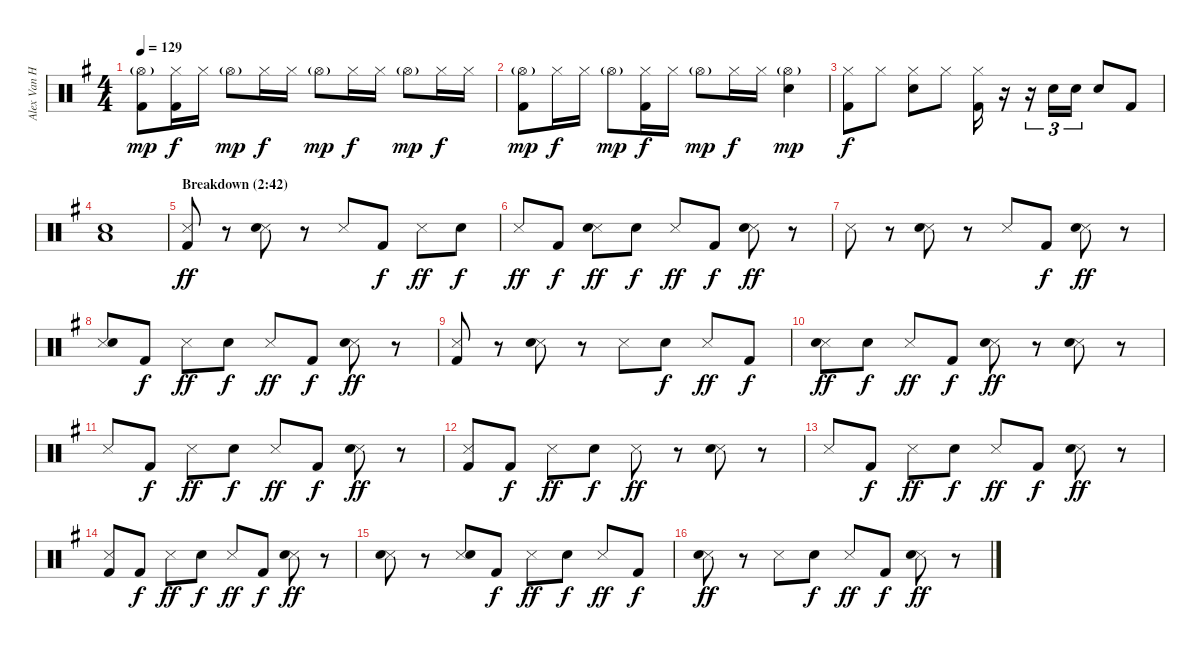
\track ("Alex Van Halen" "Alex Van H") {instrument percussion}
\staff {score}
\articulation defaults
\ts (4 4)
\tempo 129
\clef neutral
\ks eminor
("Hi-Hat (open)"{g} "Kick (hit) 2").8{dy mp} ("Hi-Hat (closed)" "Kick (hit) 2").16{dy f} "Hi-Hat (closed)".16 "Hi-Hat (open)"{g}.8{dy mp} "Hi-Hat (closed)".16{dy f} "Hi-Hat (closed)".16 "Hi-Hat (open)"{g}.8{dy mp} "Hi-Hat (closed)".16{dy f} "Hi-Hat (closed)".16 "Hi-Hat (open)"{g}.8{dy mp} "Hi-Hat (closed)".16{dy f} "Hi-Hat (closed)".16 |
("Hi-Hat (open)"{g} "Kick (hit) 2").8{dy mp} "Hi-Hat (closed)".16{dy f} "Hi-Hat (closed)".16 "Hi-Hat (open)"{g}.8{dy mp} ("Hi-Hat (closed)" "Kick (hit) 2").16{dy f} "Hi-Hat (closed)".16 "Hi-Hat (open)"{g}.8{dy mp} "Hi-Hat (closed)".16{dy f} "Hi-Hat (closed)".16 ("Hi-Hat (open)"{g} "Snare (hit) 2").4{dy mp} |
("Hi-Hat (closed)" "Kick (hit) 2").8{dy f} "Hi-Hat (closed)".8 ("Hi-Hat (closed)" "Snare (hit) 2").8 "Hi-Hat (closed)".8 ("Hi-Hat (closed)" "Kick (hit) 2").16 r.16 r.16{tu (3 2)} "Electric Snare (hit)".16{tu (3 2)} "Electric Snare (hit)".16{tu (3 2)} "Snare (hit) 2".8 "Kick (hit) 2".8 |
("Snare (hit) 2" "Low Floor Tom (hit)").1 |
\section ("" "Breakdown (2:42)")
("Snare (side stick) 3" "Kick (hit) 2").8{dy ff} r.8 ("Snare (side stick) 3" "Snare (hit) 2").8 r.8 "Snare (side stick) 3".8 "Kick (hit) 2".8{dy f} "Snare (side stick) 3".8{dy ff} "Snare (hit) 2".8{dy f} |
"Snare (side stick) 3".8{dy ff} "Kick (hit) 2".8{dy f} ("Snare (side stick) 3" "Snare (hit) 2").8{dy ff} "Snare (hit) 2".8{dy f} "Snare (side stick) 3".8{dy ff} "Kick (hit) 2".8{dy f} ("Snare (side stick) 3" "Snare (hit) 2").8{dy ff} r.8 |
"Snare (side stick) 3".8 r.8 ("Snare (side stick) 3" "Snare (hit) 2").8 r.8 "Snare (side stick) 3".8 "Kick (hit) 2".8{dy f} ("Snare (side stick) 3" "Snare (hit) 2").8{dy ff} r.8 |
("Snare (side stick) 3" "Snare (hit) 2").8 "Kick (hit) 2".8{dy f} "Snare (side stick) 3".8{dy ff} "Snare (hit) 2".8{dy f} "Snare (side stick) 3".8{dy ff} "Kick (hit) 2".8{dy f} ("Snare (side stick) 3" "Snare (hit) 2").8{dy ff} r.8 |
("Snare (side stick) 3" "Kick (hit) 2").8 r.8 ("Snare (side stick) 3" "Snare (hit) 2").8 r.8 "Snare (side stick) 3".8 "Snare (hit) 2".8{dy f} "Snare (side stick) 3".8{dy ff} "Kick (hit) 2".8{dy f} |
("Snare (side stick) 3" "Snare (hit) 2").8{dy ff} "Snare (hit) 2".8{dy f} "Snare (side stick) 3".8{dy ff} "Kick (hit) 2".8{dy f} ("Snare (side stick) 3" "Snare (hit) 2").8{dy ff} r.8 ("Snare (side stick) 3" "Snare (hit) 2").8 r.8 |
"Snare (side stick) 3".8 "Kick (hit) 2".8{dy f} "Snare (side stick) 3".8{dy ff} "Snare (hit) 2".8{dy f} "Snare (side stick) 3".8{dy ff} "Kick (hit) 2".8{dy f} ("Snare (side stick) 3" "Snare (hit) 2").8{dy ff} r.8 |
("Snare (side stick) 3" "Kick (hit) 2").8 "Kick (hit) 2".8{dy f} "Snare (side stick) 3".8{dy ff} "Snare (hit) 2".8{dy f} "Snare (side stick) 3".8{dy ff} r.8 ("Snare (side stick) 3" "Snare (hit) 2").8 r.8 |
"Snare (side stick) 3".8 "Kick (hit) 2".8{dy f} "Snare (side stick) 3".8{dy ff} "Snare (hit) 2".8{dy f} "Snare (side stick) 3".8{dy ff} "Kick (hit) 2".8{dy f} ("Snare (side stick) 3" "Snare (hit) 2").8{dy ff} r.8 |
("Snare (side stick) 3" "Kick (hit) 2").8 "Kick (hit) 2".8{dy f} "Snare (side stick) 3".8{dy ff} "Snare (hit) 2".8{dy f} "Snare (side stick) 3".8{dy ff} "Kick (hit) 2".8{dy f} ("Snare (side stick) 3" "Snare (hit) 2").8{dy ff} r.8 |
("Snare (side stick) 3" "Snare (hit) 2").8 r.8 ("Snare (side stick) 3" "Snare (hit) 2").8 "Kick (hit) 2".8{dy f} "Snare (side stick) 3".8{dy ff} "Snare (hit) 2".8{dy f} "Snare (side stick) 3".8{dy ff} "Kick (hit) 2".8{dy f} |
("Snare (side stick) 3" "Snare (hit) 2").8{dy ff} r.8 "Snare (side stick) 3".8 "Snare (hit) 2".8{dy f} "Snare (side stick) 3".8{dy ff} "Kick (hit) 2".8{dy f} ("Snare (side stick) 3" "Snare (hit) 2").8{dy ff} r.8
